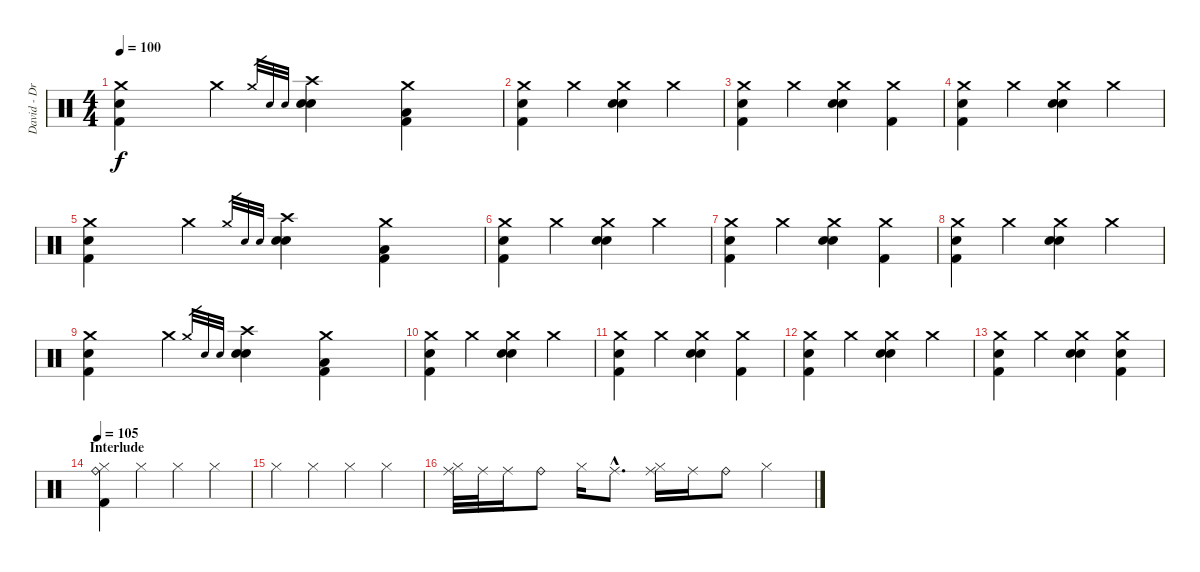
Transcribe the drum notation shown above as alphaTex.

\track ("David - Drums" "David - Dr") {instrument percussion}
\staff {score}
\articulation defaults
\ts (4 4)
\tempo 100
\clef neutral
\ks c
("Crash medium (hit)" "Snare (hit) 2" "Kick (hit) 2").4{dy f} "Crash medium (hit)".4 "Crash medium (hit)".32{gr} "Electric Snare (hit)".32{gr} "Snare (hit) 2".32{gr} ("Crash high (hit)" "Electric Snare (hit)" "Snare (hit) 2").4 ("Crash medium (hit)" "Low Floor Tom (hit)" "Kick (hit) 2").4 |
("Crash medium (hit)" "Snare (hit) 2" "Kick (hit) 2").4 "Crash medium (hit)".4 ("Crash medium (hit)" "Electric Snare (hit)" "Snare (hit) 2").4 "Crash medium (hit)".4 |
("Crash medium (hit)" "Snare (hit) 2" "Kick (hit) 2").4 "Crash medium (hit)".4 ("Crash medium (hit)" "Electric Snare (hit)" "Snare (hit) 2").4 ("Crash medium (hit)" "Kick (hit) 2").4 |
("Crash medium (hit)" "Snare (hit) 2" "Kick (hit) 2").4 "Crash medium (hit)".4 ("Crash medium (hit)" "Electric Snare (hit)" "Snare (hit) 2").4 "Crash medium (hit)".4 |
("Crash medium (hit)" "Snare (hit) 2" "Kick (hit) 2").4 "Crash medium (hit)".4 "Crash medium (hit)".32{gr} "Electric Snare (hit)".32{gr} "Snare (hit) 2".32{gr} ("Crash high (hit)" "Electric Snare (hit)" "Snare (hit) 2").4 ("Crash medium (hit)" "Low Floor Tom (hit)" "Kick (hit) 2").4 |
("Crash medium (hit)" "Snare (hit) 2" "Kick (hit) 2").4 "Crash medium (hit)".4 ("Crash medium (hit)" "Electric Snare (hit)" "Snare (hit) 2").4 "Crash medium (hit)".4 |
("Crash medium (hit)" "Snare (hit) 2" "Kick (hit) 2").4 "Crash medium (hit)".4 ("Crash medium (hit)" "Electric Snare (hit)" "Snare (hit) 2").4 ("Crash medium (hit)" "Kick (hit) 2").4 |
("Crash medium (hit)" "Snare (hit) 2" "Kick (hit) 2").4 "Crash medium (hit)".4 ("Crash medium (hit)" "Electric Snare (hit)" "Snare (hit) 2").4 "Crash medium (hit)".4 |
("Crash medium (hit)" "Snare (hit) 2" "Kick (hit) 2").4 "Crash medium (hit)".4 "Crash medium (hit)".32{gr} "Electric Snare (hit)".32{gr} "Snare (hit) 2".32{gr} ("Crash high (hit)" "Electric Snare (hit)" "Snare (hit) 2").4 ("Crash medium (hit)" "Low Floor Tom (hit)" "Kick (hit) 2").4 |
("Crash medium (hit)" "Snare (hit) 2" "Kick (hit) 2").4 "Crash medium (hit)".4 ("Crash medium (hit)" "Electric Snare (hit)" "Snare (hit) 2").4 "Crash medium (hit)".4 |
("Crash medium (hit)" "Snare (hit) 2" "Kick (hit) 2").4 "Crash medium (hit)".4 ("Crash medium (hit)" "Electric Snare (hit)" "Snare (hit) 2").4 ("Crash medium (hit)" "Kick (hit) 2").4 |
("Crash medium (hit)" "Snare (hit) 2" "Kick (hit) 2").4 "Crash medium (hit)".4 ("Crash medium (hit)" "Electric Snare (hit)" "Snare (hit) 2").4 "Crash medium (hit)".4 |
("Crash medium (hit)" "Snare (hit) 2" "Kick (hit) 2").4 "Crash medium (hit)".4 ("Crash medium (hit)" "Electric Snare (hit)" "Snare (hit) 2").4 ("Crash medium (hit)" "Snare (hit) 2" "Kick (hit) 2").4 |
\section ("" "Interlude")
\tempo 105
("Ride (bell)" "Hi-Hat (closed)" "Kick (hit) 2").4 "Hi-Hat (closed)".4 "Hi-Hat (closed)".4 "Hi-Hat (closed)".4 |
"Hi-Hat (closed)".4 "Hi-Hat (closed)".4 "Hi-Hat (closed)".4 "Hi-Hat (closed)".4 |
("Ride (middle)" "Hi-Hat (closed)").32 "Ride (middle)".32 "Ride (middle)".16 "Ride (bell)".8 "Hi-Hat (closed)".16 "Ride (middle)"{hac}.8{d} ("Ride (middle)" "Hi-Hat (closed)").16 "Ride (middle)".16 "Ride (bell)".8 "Hi-Hat (closed)".4
